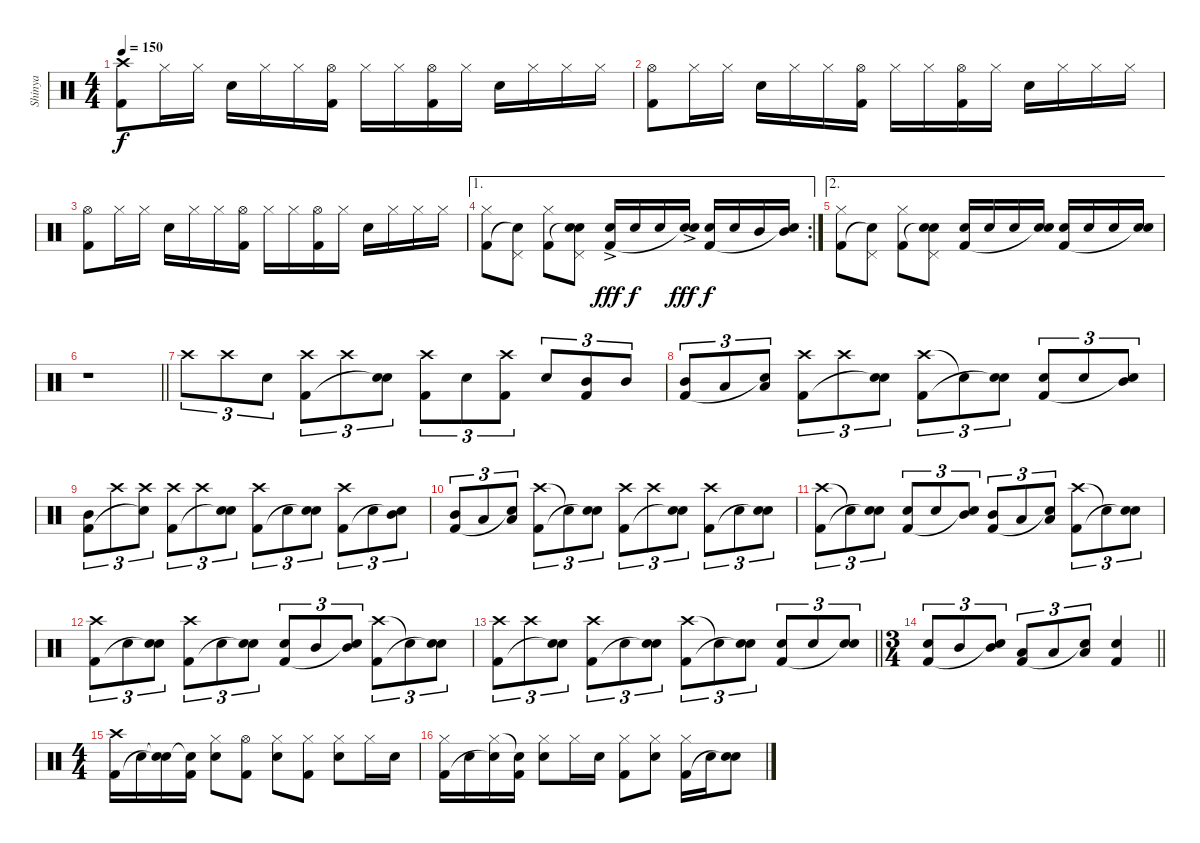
\track ("Shinya" "Shinya") {instrument percussion}
\staff {score}
\articulation defaults
\ts (4 4)
\tempo 150
\clef neutral
\ks c
("Crash high (hit)" "Kick (hit) 2").8{dy f} "Hi-Hat (closed)".16 "Hi-Hat (closed)".16 "Electric Snare (hit)".16 "Hi-Hat (closed)".16 "Hi-Hat (closed)".16 ("Hi-Hat (open)" "Kick (hit) 2").16 "Hi-Hat (closed)".16 "Hi-Hat (closed)".16 ("Hi-Hat (open)" "Kick (hit) 2").16 "Hi-Hat (closed)".16 "Electric Snare (hit)".16 "Hi-Hat (closed)".16 "Hi-Hat (closed)".16 "Hi-Hat (closed)".16 |
("Hi-Hat (open)" "Kick (hit) 2").8 "Hi-Hat (closed)".16 "Hi-Hat (closed)".16 "Electric Snare (hit)".16 "Hi-Hat (closed)".16 "Hi-Hat (closed)".16 ("Hi-Hat (open)" "Kick (hit) 2").16 "Hi-Hat (closed)".16 "Hi-Hat (closed)".16 ("Hi-Hat (open)" "Kick (hit) 2").16 "Hi-Hat (closed)".16 "Electric Snare (hit)".16 "Hi-Hat (closed)".16 "Hi-Hat (closed)".16 "Hi-Hat (closed)".16 |
("Hi-Hat (open)" "Kick (hit) 2").8 "Hi-Hat (closed)".16 "Hi-Hat (closed)".16 "Electric Snare (hit)".16 "Hi-Hat (closed)".16 "Hi-Hat (closed)".16 ("Hi-Hat (open)" "Kick (hit) 2").16 "Hi-Hat (closed)".16 "Hi-Hat (closed)".16 ("Hi-Hat (open)" "Kick (hit) 2").16 "Hi-Hat (closed)".16 "Electric Snare (hit)".16 "Hi-Hat (closed)".16 "Hi-Hat (closed)".16 "Hi-Hat (closed)".16 |
\ae 1
\rc 2
("Hi-Hat (closed)" "Kick (hit) 2").8 ("Pedal Hi-Hat (hit)" "Snare (hit)"{t}).8 ("Hi-Hat (closed)" "Kick (hit) 2").8 ("Pedal Hi-Hat (hit)" "Snare (hit)"{t} "Electric Snare (hit)").8 ("Electric Snare (hit)"{ac} "Kick (hit) 2").16{dy fff} "Electric Snare (hit)".16{dy f} "Electric Snare (hit)".16 ("Electric Snare (hit)"{ac} "Snare (hit)"{t}).16{dy fff} ("Electric Snare (hit)" "Kick (hit) 2").16{dy f} "Electric Snare (hit)".16 "Mid Tom (hit)".16 ("Mid Tom (hit)" "Snare (hit)"{t}).16 |
\ae 2
("Hi-Hat (closed)" "Kick (hit) 2").8 ("Pedal Hi-Hat (hit)" "Snare (hit)"{t}).8 ("Hi-Hat (closed)" "Kick (hit) 2").8 ("Pedal Hi-Hat (hit)" "Snare (hit)"{t} "Electric Snare (hit)").8 ("Electric Snare (hit)" "Kick (hit) 2").16 "Electric Snare (hit)".16 "Electric Snare (hit)".16 ("Electric Snare (hit)" "Snare (hit)"{t}).16 ("Electric Snare (hit)" "Kick (hit) 2").16 "Electric Snare (hit)".16 "Electric Snare (hit)".16 ("Electric Snare (hit)" "Snare (hit)"{t}).16 |
\barLineRight lightlight
r.1 |
"Crash high (hit)".8{tu (3 2)} "Crash high (hit)".8{tu (3 2)} "Electric Snare (hit)".8{tu (3 2)} ("Crash high (hit)" "Kick (hit) 2").8{tu (3 2)} "Crash high (hit)".8{tu (3 2)} ("Electric Snare (hit)" "Snare (hit)"{t}).8{tu (3 2)} ("Crash high (hit)" "Kick (hit) 2").8{tu (3 2)} "Electric Snare (hit)".8{tu (3 2)} ("Crash high (hit)" "Kick (hit) 2").8{tu (3 2)} "Electric Snare (hit)".8{tu (3 2)} ("Mid Tom (hit)" "Kick (hit) 2").8{tu (3 2)} "Mid Tom (hit)".8{tu (3 2)} |
("Mid Tom (hit)" "Kick (hit) 2").8{tu (3 2)} "Low Tom (hit)".8{tu (3 2)} ("Low Tom (hit)" "Snare (hit)"{t}).8{tu (3 2)} ("Crash high (hit)" "Kick (hit) 2").8{tu (3 2)} "Crash high (hit)".8{tu (3 2)} ("Electric Snare (hit)" "Snare (hit)"{t}).8{tu (3 2)} ("Crash high (hit)" "Kick (hit) 2").8{tu (3 2)} "Snare (hit)"{t}.8{tu (3 2)} ("Electric Snare (hit)" "Snare (hit)"{t}).8{tu (3 2)} ("Electric Snare (hit)" "Kick (hit) 2").8{tu (3 2)} "Electric Snare (hit)".8{tu (3 2)} ("Mid Tom (hit)" "Snare (hit)"{t}).8{tu (3 2)} |
("Mid Tom (hit)" "Kick (hit) 2").8{tu (3 2)} "Crash high (hit)".8{tu (3 2)} ("Crash high (hit)" "Snare (hit)"{t}).8{tu (3 2)} ("Crash high (hit)" "Kick (hit) 2").8{tu (3 2)} "Crash high (hit)".8{tu (3 2)} ("Electric Snare (hit)" "Snare (hit)"{t}).8{tu (3 2)} ("Crash high (hit)" "Kick (hit) 2").8{tu (3 2)} "Electric Snare (hit)".8{tu (3 2)} ("Electric Snare (hit)" "Snare (hit)"{t}).8{tu (3 2)} ("Crash high (hit)" "Kick (hit) 2").8{tu (3 2)} "Electric Snare (hit)".8{tu (3 2)} ("Mid Tom (hit)" "Snare (hit)"{t}).8{tu (3 2)} |
("Mid Tom (hit)" "Kick (hit) 2").8{tu (3 2)} "Low Tom (hit)".8{tu (3 2)} ("Low Tom (hit)" "Snare (hit)"{t}).8{tu (3 2)} ("Crash high (hit)" "Kick (hit) 2").8{tu (3 2)} "Snare (hit)"{t}.8{tu (3 2)} ("Electric Snare (hit)" "Snare (hit)"{t}).8{tu (3 2)} ("Crash high (hit)" "Kick (hit) 2").8{tu (3 2)} "Crash high (hit)".8{tu (3 2)} ("Electric Snare (hit)" "Snare (hit)"{t}).8{tu (3 2)} ("Crash high (hit)" "Kick (hit) 2").8{tu (3 2)} "Electric Snare (hit)".8{tu (3 2)} ("Electric Snare (hit)" "Snare (hit)"{t}).8{tu (3 2)} |
("Crash high (hit)" "Kick (hit) 2").8{tu (3 2)} "Snare (hit)"{t}.8{tu (3 2)} ("Electric Snare (hit)" "Snare (hit)"{t}).8{tu (3 2)} ("Electric Snare (hit)" "Kick (hit) 2").8{tu (3 2)} "Electric Snare (hit)".8{tu (3 2)} ("Mid Tom (hit)" "Snare (hit)"{t}).8{tu (3 2)} ("Mid Tom (hit)" "Kick (hit) 2").8{tu (3 2)} "Low Tom (hit)".8{tu (3 2)} ("Low Tom (hit)" "Snare (hit)"{t}).8{tu (3 2)} ("Crash high (hit)" "Kick (hit) 2").8{tu (3 2)} "Snare (hit)"{t}.8{tu (3 2)} ("Electric Snare (hit)" "Snare (hit)"{t}).8{tu (3 2)} |
("Crash high (hit)" "Kick (hit) 2").8{tu (3 2)} "Electric Snare (hit)".8{tu (3 2)} ("Electric Snare (hit)" "Snare (hit)"{t}).8{tu (3 2)} ("Crash high (hit)" "Kick (hit) 2").8{tu (3 2)} "Electric Snare (hit)".8{tu (3 2)} ("Electric Snare (hit)" "Snare (hit)"{t}).8{tu (3 2)} ("Electric Snare (hit)" "Kick (hit) 2").8{tu (3 2)} "Mid Tom (hit)".8{tu (3 2)} ("Mid Tom (hit)" "Snare (hit)"{t}).8{tu (3 2)} ("Crash high (hit)" "Kick (hit) 2").8{tu (3 2)} "Snare (hit)"{t}.8{tu (3 2)} ("Electric Snare (hit)" "Snare (hit)"{t}).8{tu (3 2)} |
\barLineRight lightlight
("Crash high (hit)" "Kick (hit) 2").8{tu (3 2)} "Crash high (hit)".8{tu (3 2)} ("Electric Snare (hit)" "Snare (hit)"{t}).8{tu (3 2)} ("Crash high (hit)" "Kick (hit) 2").8{tu (3 2)} "Electric Snare (hit)".8{tu (3 2)} ("Electric Snare (hit)" "Snare (hit)"{t}).8{tu (3 2)} ("Crash high (hit)" "Kick (hit) 2").8{tu (3 2)} "Snare (hit)"{t}.8{tu (3 2)} ("Electric Snare (hit)" "Snare (hit)"{t}).8{tu (3 2)} ("Electric Snare (hit)" "Kick (hit) 2").8{tu (3 2)} "Electric Snare (hit)".8{tu (3 2)} ("Electric Snare (hit)" "Snare (hit)"{t}).8{tu (3 2)} |
\ts (3 4)
\barLineRight lightlight
("Electric Snare (hit)" "Kick (hit) 2").8{tu (3 2)} "Mid Tom (hit)".8{tu (3 2)} ("Mid Tom (hit)" "Snare (hit)"{t}).8{tu (3 2)} ("Low Tom (hit)" "Kick (hit) 2").8{tu (3 2)} "Low Tom (hit)".8{tu (3 2)} ("Low Tom (hit)" "Snare (hit)"{t}).8{tu (3 2)} ("Electric Snare (hit)" "Kick (hit) 2").4 |
\ts (4 4)
("Crash high (hit)" "Kick (hit) 2").16 "Electric Snare (hit)".16 ("Snare (hit)"{t} "Snare (hit)"{t}).16 ("Snare (hit)"{t} "Kick (hit) 2").16 ("Hi-Hat (closed)" "Electric Snare (hit)").8 ("Hi-Hat (open)" "Kick (hit) 2").8 ("Hi-Hat (closed)" "Electric Snare (hit)").8 ("Hi-Hat (closed)" "Kick (hit) 2").8 ("Hi-Hat (closed)" "Electric Snare (hit)").8 "Hi-Hat (closed)".16 "Electric Snare (hit)".16 |
("Hi-Hat (closed)" "Kick (hit) 2").16 "Electric Snare (hit)".16 ("Hi-Hat (closed)" "Snare (hit)"{t}).16 ("Snare (hit)"{t} "Kick (hit) 2").16 ("Hi-Hat (closed)" "Electric Snare (hit)").8 "Hi-Hat (closed)".16 "Electric Snare (hit)".16 ("Hi-Hat (closed)" "Kick (hit) 2").8 ("Hi-Hat (closed)" "Electric Snare (hit)").8 ("Hi-Hat (closed)" "Kick (hit) 2").16 "Electric Snare (hit)".16 ("Electric Snare (hit)" "Snare (hit)"{t}).8
